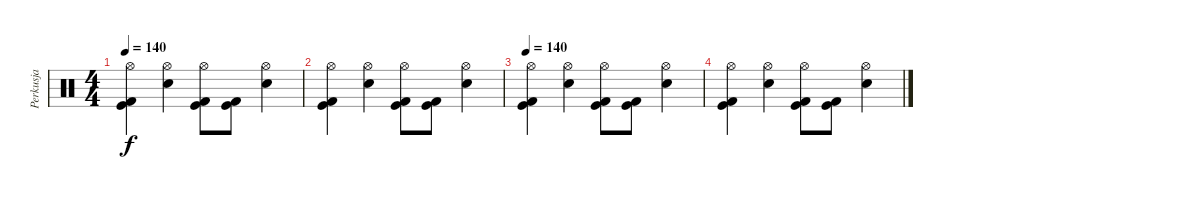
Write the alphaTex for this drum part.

\track ("Perkusja" "Perkusja") {instrument percussion}
\staff {score}
\articulation defaults
\ts (4 4)
\tempo 140
\clef neutral
\ks c
("Hi-Hat (open)" "Kick (hit)" "Kick (hit) 2").4{dy f} ("Hi-Hat (open)" "Snare (hit) 2").4 ("Hi-Hat (open)" "Kick (hit)" "Kick (hit) 2").8 ("Kick (hit)" "Kick (hit) 2").8 ("Hi-Hat (open)" "Snare (hit) 2").4 |
("Hi-Hat (open)" "Kick (hit)" "Kick (hit) 2").4 ("Hi-Hat (open)" "Snare (hit) 2").4 ("Hi-Hat (open)" "Kick (hit)" "Kick (hit) 2").8 ("Kick (hit)" "Kick (hit) 2").8 ("Hi-Hat (open)" "Snare (hit) 2").4 |
\tempo 140
("Hi-Hat (open)" "Kick (hit)" "Kick (hit) 2").4 ("Hi-Hat (open)" "Snare (hit) 2").4 ("Hi-Hat (open)" "Kick (hit)" "Kick (hit) 2").8 ("Kick (hit)" "Kick (hit) 2").8 ("Hi-Hat (open)" "Snare (hit) 2").4 |
("Hi-Hat (open)" "Kick (hit)" "Kick (hit) 2").4 ("Hi-Hat (open)" "Snare (hit) 2").4 ("Hi-Hat (open)" "Kick (hit)" "Kick (hit) 2").8 ("Kick (hit)" "Kick (hit) 2").8 ("Hi-Hat (open)" "Snare (hit) 2").4
